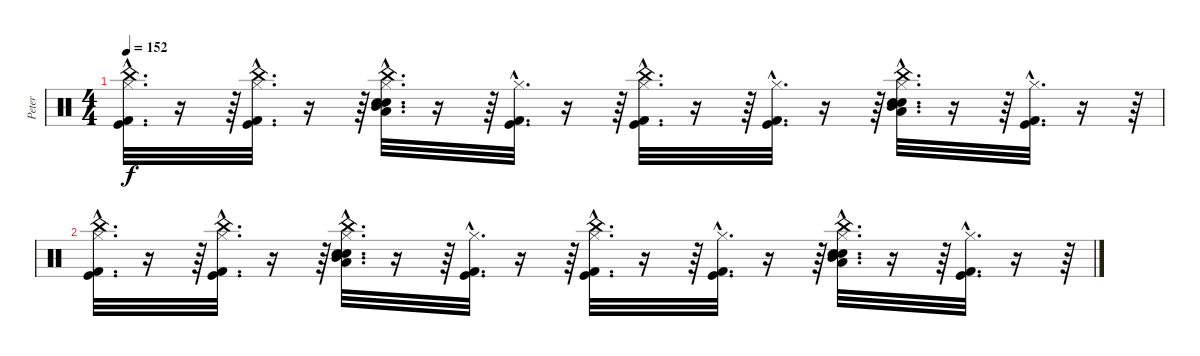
\track ("Peter" "Peter") {instrument percussion}
\staff {score}
\articulation defaults
\ts (4 4)
\tempo 152
\clef neutral
\ks c
("China (hit)"{hac} "Kick (hit) 2"{hac} "Kick (hit)"{hac} "Hi-Hat (closed)"{hac}).32{d dy f} r.16 r.64 ("Kick (hit)"{hac} "Kick (hit) 2"{hac} "China (hit)"{hac} "Hi-Hat (closed)"{hac}).32{d} r.16 r.64 ("China (hit)"{hac} "Electric Snare (hit)"{hac} "Snare (hit) 2"{hac} "Hi-Hat (closed)"{hac} "Mid Tom (hit)"{hac} "Low Tom (hit)"{hac}).32{d} r.16 r.64 ("Kick (hit) 2"{hac} "Kick (hit)"{hac} "Hi-Hat (closed)"{hac}).32{d} r.16 r.64 ("China (hit)"{hac} "Kick (hit)"{hac} "Kick (hit) 2"{hac} "Hi-Hat (closed)"{hac}).32{d} r.16 r.64 ("Kick (hit) 2"{hac} "Kick (hit)"{hac} "Hi-Hat (closed)"{hac}).32{d} r.16 r.64 ("China (hit)"{hac} "Electric Snare (hit)"{hac} "Snare (hit) 2"{hac} "Hi-Hat (closed)"{hac} "Mid Tom (hit)"{hac} "Low Tom (hit)"{hac}).32{d} r.16 r.64 ("Kick (hit) 2"{hac} "Kick (hit)"{hac} "Hi-Hat (closed)"{hac}).32{d} r.16 r.64 |
("China (hit)"{hac} "Kick (hit) 2"{hac} "Kick (hit)"{hac} "Hi-Hat (closed)"{hac}).32{d} r.16 r.64 ("Kick (hit)"{hac} "Kick (hit) 2"{hac} "China (hit)"{hac} "Hi-Hat (closed)"{hac}).32{d} r.16 r.64 ("China (hit)"{hac} "Electric Snare (hit)"{hac} "Snare (hit) 2"{hac} "Hi-Hat (closed)"{hac} "Mid Tom (hit)"{hac} "Low Tom (hit)"{hac}).32{d} r.16 r.64 ("Kick (hit) 2"{hac} "Kick (hit)"{hac} "Hi-Hat (closed)"{hac}).32{d} r.16 r.64 ("China (hit)"{hac} "Kick (hit)"{hac} "Kick (hit) 2"{hac} "Hi-Hat (closed)"{hac}).32{d} r.16 r.64 ("Kick (hit) 2"{hac} "Kick (hit)"{hac} "Hi-Hat (closed)"{hac}).32{d} r.16 r.64 ("China (hit)"{hac} "Electric Snare (hit)"{hac} "Snare (hit) 2"{hac} "Hi-Hat (closed)"{hac} "Mid Tom (hit)"{hac} "Low Tom (hit)"{hac}).32{d} r.16 r.64 ("Kick (hit) 2"{hac} "Kick (hit)"{hac} "Hi-Hat (closed)"{hac}).32{d} r.16 r.64
